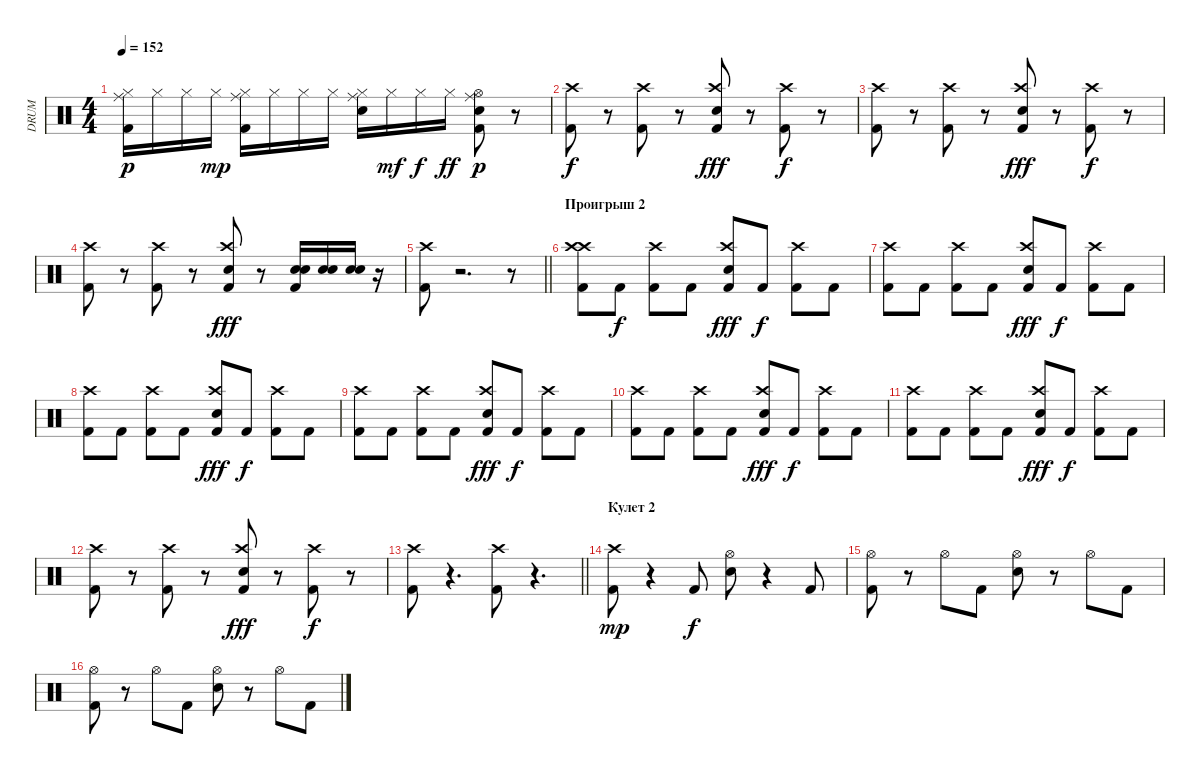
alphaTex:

\track ("DRUM" "DRUM") {instrument percussion}
\staff {score}
\articulation defaults
\ts (4 4)
\tempo 152
\clef neutral
\ks c
("Ride (middle)" "Hi-Hat (closed)" "Kick (hit) 2").16{dy p} "Hi-Hat (closed)".16 "Hi-Hat (closed)".16 "Hi-Hat (closed)".16{dy mp} ("Kick (hit) 2" "Hi-Hat (closed)" "Ride (middle)").16 "Hi-Hat (closed)".16 "Hi-Hat (closed)".16 "Hi-Hat (closed)".16 ("Ride (middle)" "Snare (hit) 2" "Hi-Hat (closed)").16 "Hi-Hat (closed)".16{dy mf} "Hi-Hat (closed)".16{dy f} "Hi-Hat (closed)".16{dy ff} ("Hi-Hat (open)" "Snare (hit) 2" "Ride (middle)" "Kick (hit) 2").8{dy p} r.8 |
("Kick (hit) 2" "Crash high (hit)").8{dy f} r.8 ("Kick (hit) 2" "Crash high (hit)").8 r.8 ("Kick (hit) 2" "Crash high (hit)" "Electric Snare (hit)").8{dy fff} r.8 ("Kick (hit) 2" "Crash high (hit)").8{dy f} r.8 |
("Kick (hit) 2" "Crash high (hit)").8 r.8 ("Kick (hit) 2" "Crash high (hit)").8 r.8 ("Kick (hit) 2" "Crash high (hit)" "Electric Snare (hit)").8{dy fff} r.8 ("Kick (hit) 2" "Crash high (hit)").8{dy f} r.8 |
("Kick (hit) 2" "Crash high (hit)").8 r.8 ("Kick (hit) 2" "Crash high (hit)").8 r.8 ("Kick (hit) 2" "Crash high (hit)" "Electric Snare (hit)").8{dy fff} r.8 ("Electric Snare (hit)" "Kick (hit) 2" "Snare (hit) 2").16 ("Electric Snare (hit)" "Snare (hit) 2").16 ("Electric Snare (hit)" "Snare (hit) 2").16 r.16 |
\barLineRight lightlight
("Kick (hit) 2" "Crash high (hit)").8 r.2{d} r.8 |
\section ("" "Проигрыш 2")
("Crash high (hit)" "Kick (hit) 2" "Crash high (hit)").8 "Kick (hit) 2".8{dy f} ("Crash high (hit)" "Kick (hit) 2").8 "Kick (hit) 2".8 ("Electric Snare (hit)" "Crash high (hit)" "Kick (hit) 2").8{dy fff} "Kick (hit) 2".8{dy f} ("Crash high (hit)" "Kick (hit) 2").8 "Kick (hit) 2".8 |
("Crash high (hit)" "Kick (hit) 2").8 "Kick (hit) 2".8 ("Crash high (hit)" "Kick (hit) 2").8 "Kick (hit) 2".8 ("Electric Snare (hit)" "Crash high (hit)" "Kick (hit) 2").8{dy fff} "Kick (hit) 2".8{dy f} ("Crash high (hit)" "Kick (hit) 2").8 "Kick (hit) 2".8 |
("Crash high (hit)" "Kick (hit) 2").8 "Kick (hit) 2".8 ("Crash high (hit)" "Kick (hit) 2").8 "Kick (hit) 2".8 ("Electric Snare (hit)" "Crash high (hit)" "Kick (hit) 2").8{dy fff} "Kick (hit) 2".8{dy f} ("Crash high (hit)" "Kick (hit) 2").8 "Kick (hit) 2".8 |
("Crash high (hit)" "Kick (hit) 2").8 "Kick (hit) 2".8 ("Crash high (hit)" "Kick (hit) 2").8 "Kick (hit) 2".8 ("Electric Snare (hit)" "Crash high (hit)" "Kick (hit) 2").8{dy fff} "Kick (hit) 2".8{dy f} ("Crash high (hit)" "Kick (hit) 2").8 "Kick (hit) 2".8 |
("Crash high (hit)" "Kick (hit) 2").8 "Kick (hit) 2".8 ("Crash high (hit)" "Kick (hit) 2").8 "Kick (hit) 2".8 ("Electric Snare (hit)" "Crash high (hit)" "Kick (hit) 2").8{dy fff} "Kick (hit) 2".8{dy f} ("Crash high (hit)" "Kick (hit) 2").8 "Kick (hit) 2".8 |
("Crash high (hit)" "Kick (hit) 2").8 "Kick (hit) 2".8 ("Crash high (hit)" "Kick (hit) 2").8 "Kick (hit) 2".8 ("Electric Snare (hit)" "Crash high (hit)" "Kick (hit) 2").8{dy fff} "Kick (hit) 2".8{dy f} ("Crash high (hit)" "Kick (hit) 2").8 "Kick (hit) 2".8 |
("Kick (hit) 2" "Crash high (hit)").8 r.8 ("Kick (hit) 2" "Crash high (hit)").8 r.8 ("Kick (hit) 2" "Crash high (hit)" "Electric Snare (hit)").8{dy fff} r.8 ("Kick (hit) 2" "Crash high (hit)").8{dy f} r.8 |
\barLineRight lightlight
("Crash high (hit)" "Kick (hit) 2").8 r.4{d} ("Crash high (hit)" "Kick (hit) 2").8 r.4{d} |
\section ("" "Кулет 2")
("Crash high (hit)" "Kick (hit) 2").8{dy mp} r.4 "Kick (hit) 2".8{dy f} ("Hi-Hat (open)" "Electric Snare (hit)").8 r.4 "Kick (hit) 2".8 |
("Kick (hit) 2" "Hi-Hat (open)").8 r.8 "Hi-Hat (open)".8 "Kick (hit) 2".8 ("Electric Snare (hit)" "Hi-Hat (open)").8 r.8 "Hi-Hat (open)".8 "Kick (hit) 2".8 |
("Kick (hit) 2" "Hi-Hat (open)").8 r.8 "Hi-Hat (open)".8 "Kick (hit) 2".8 ("Electric Snare (hit)" "Hi-Hat (open)").8 r.8 "Hi-Hat (open)".8 "Kick (hit) 2".8
